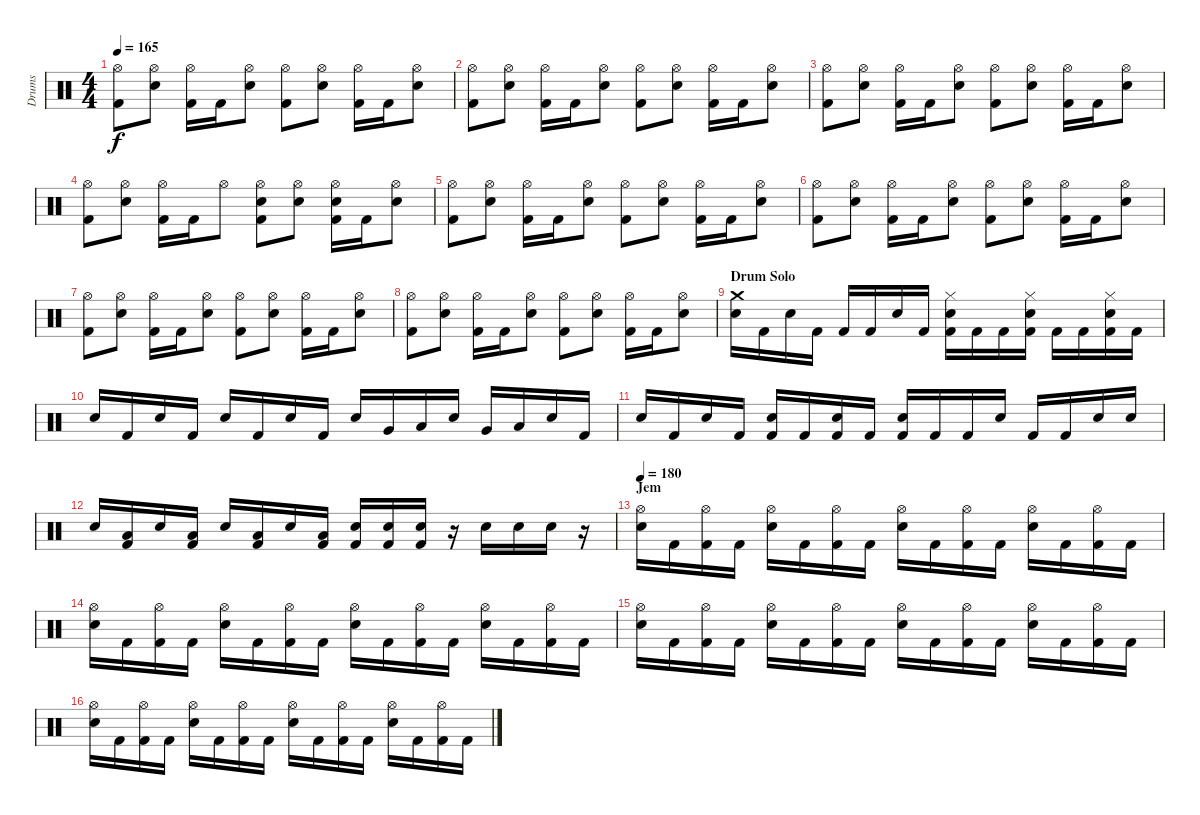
\track ("Drums" "Drums") {instrument percussion}
\staff {score}
\articulation defaults
\ts (4 4)
\section ("" "")
\tempo 165
\clef neutral
\ks c
("Hi-Hat (open)" "Kick (hit) 2").8{dy f} ("Hi-Hat (open)" "Snare (hit) 2").8 ("Hi-Hat (open)" "Kick (hit) 2").16 "Kick (hit) 2".16 ("Hi-Hat (open)" "Snare (hit) 2").8 ("Hi-Hat (open)" "Kick (hit) 2").8 ("Hi-Hat (open)" "Snare (hit) 2").8 ("Hi-Hat (open)" "Kick (hit) 2").16 "Kick (hit) 2".16 ("Hi-Hat (open)" "Snare (hit) 2").8 |
("Hi-Hat (open)" "Kick (hit) 2").8 ("Hi-Hat (open)" "Snare (hit) 2").8 ("Hi-Hat (open)" "Kick (hit) 2").16 "Kick (hit) 2".16 ("Hi-Hat (open)" "Snare (hit) 2").8 ("Hi-Hat (open)" "Kick (hit) 2").8 ("Hi-Hat (open)" "Snare (hit) 2").8 ("Hi-Hat (open)" "Kick (hit) 2").16 "Kick (hit) 2".16 ("Hi-Hat (open)" "Snare (hit) 2").8 |
("Hi-Hat (open)" "Kick (hit) 2").8 ("Hi-Hat (open)" "Snare (hit) 2").8 ("Hi-Hat (open)" "Kick (hit) 2").16 "Kick (hit) 2".16 ("Hi-Hat (open)" "Snare (hit) 2").8 ("Hi-Hat (open)" "Kick (hit) 2").8 ("Hi-Hat (open)" "Snare (hit) 2").8 ("Hi-Hat (open)" "Kick (hit) 2").16 "Kick (hit) 2".16 ("Hi-Hat (open)" "Snare (hit) 2").8 |
("Hi-Hat (open)" "Kick (hit) 2").8 ("Hi-Hat (open)" "Snare (hit) 2").8 ("Hi-Hat (open)" "Kick (hit) 2").16 "Kick (hit) 2".16 "Hi-Hat (open)".8 ("Hi-Hat (open)" "Snare (hit) 2" "Kick (hit) 2").8 ("Hi-Hat (open)" "Snare (hit) 2").8 ("Hi-Hat (open)" "Snare (hit) 2" "Kick (hit) 2").16 "Kick (hit) 2".16 ("Hi-Hat (open)" "Snare (hit) 2").8 |
("Hi-Hat (open)" "Kick (hit) 2").8 ("Hi-Hat (open)" "Snare (hit) 2").8 ("Hi-Hat (open)" "Kick (hit) 2").16 "Kick (hit) 2".16 ("Hi-Hat (open)" "Snare (hit) 2").8 ("Hi-Hat (open)" "Kick (hit) 2").8 ("Hi-Hat (open)" "Snare (hit) 2").8 ("Hi-Hat (open)" "Kick (hit) 2").16 "Kick (hit) 2".16 ("Hi-Hat (open)" "Snare (hit) 2").8 |
("Hi-Hat (open)" "Kick (hit) 2").8 ("Hi-Hat (open)" "Snare (hit) 2").8 ("Hi-Hat (open)" "Kick (hit) 2").16 "Kick (hit) 2".16 ("Hi-Hat (open)" "Snare (hit) 2").8 ("Hi-Hat (open)" "Kick (hit) 2").8 ("Hi-Hat (open)" "Snare (hit) 2").8 ("Hi-Hat (open)" "Kick (hit) 2").16 "Kick (hit) 2".16 ("Hi-Hat (open)" "Snare (hit) 2").8 |
("Hi-Hat (open)" "Kick (hit) 2").8 ("Hi-Hat (open)" "Snare (hit) 2").8 ("Hi-Hat (open)" "Kick (hit) 2").16 "Kick (hit) 2".16 ("Hi-Hat (open)" "Snare (hit) 2").8 ("Hi-Hat (open)" "Kick (hit) 2").8 ("Hi-Hat (open)" "Snare (hit) 2").8 ("Hi-Hat (open)" "Kick (hit) 2").16 "Kick (hit) 2".16 ("Hi-Hat (open)" "Snare (hit) 2").8 |
("Hi-Hat (open)" "Kick (hit) 2").8 ("Hi-Hat (open)" "Snare (hit) 2").8 ("Hi-Hat (open)" "Kick (hit) 2").16 "Kick (hit) 2".16 ("Hi-Hat (open)" "Snare (hit) 2").8 ("Hi-Hat (open)" "Kick (hit) 2").8 ("Hi-Hat (open)" "Snare (hit) 2").8 ("Hi-Hat (open)" "Kick (hit) 2").16 "Kick (hit) 2".16 ("Hi-Hat (open)" "Snare (hit) 2").8 |
\section ("" "Drum Solo")
("Crash medium (hit)" "Snare (hit) 2").16 "Kick (hit) 2".16 "Snare (hit) 2".16 "Kick (hit) 2".16 "Kick (hit) 2".16 "Kick (hit) 2".16 "Snare (hit) 2".16 "Kick (hit) 2".16 ("Hi-Hat (closed)" "Snare (hit) 2" "Kick (hit) 2").16 "Kick (hit) 2".16 "Kick (hit) 2".16 ("Hi-Hat (closed)" "Snare (hit) 2" "Kick (hit) 2").16 "Kick (hit) 2".16 "Kick (hit) 2".16 ("Hi-Hat (closed)" "Snare (hit) 2" "Kick (hit) 2").16 "Kick (hit) 2".16 |
"Snare (hit) 2".16 "Kick (hit) 2".16 "Snare (hit) 2".16 "Kick (hit) 2".16 "Snare (hit) 2".16 "Kick (hit) 2".16 "Snare (hit) 2".16 "Kick (hit) 2".16 "Snare (hit) 2".16 "Very Low Tom (hit)".16 "Low Floor Tom (hit)".16 "Snare (hit) 2".16 "Very Low Tom (hit)".16 "Low Floor Tom (hit)".16 "Snare (hit) 2".16 "Kick (hit) 2".16 |
"Snare (hit) 2".16 "Kick (hit) 2".16 "Snare (hit) 2".16 "Kick (hit) 2".16 ("Snare (hit) 2" "Kick (hit) 2").16 "Kick (hit) 2".16 ("Snare (hit) 2" "Kick (hit) 2").16 "Kick (hit) 2".16 ("Snare (hit) 2" "Kick (hit) 2").16 "Kick (hit) 2".16 "Kick (hit) 2".16 "Snare (hit) 2".16 "Kick (hit) 2".16 "Kick (hit) 2".16 "Snare (hit) 2".16 "Snare (hit) 2".16 |
"Snare (hit) 2".16 ("Low Floor Tom (hit)" "Kick (hit) 2").16 "Snare (hit) 2".16 ("Low Floor Tom (hit)" "Kick (hit) 2").16 "Snare (hit) 2".16 ("Low Floor Tom (hit)" "Kick (hit) 2").16 "Snare (hit) 2".16 ("Low Floor Tom (hit)" "Kick (hit) 2").16 ("Snare (hit) 2" "Kick (hit) 2").16 ("Snare (hit) 2" "Kick (hit) 2").16 ("Snare (hit) 2" "Kick (hit) 2").16 r.16 "Snare (hit) 2".16 "Snare (hit) 2".16 "Snare (hit) 2".16 r.16 |
\section ("" "Jem")
\tempo 180
("Hi-Hat (open)" "Snare (hit) 2").16 "Kick (hit) 2".16 ("Hi-Hat (open)" "Kick (hit) 2").16 "Kick (hit) 2".16 ("Hi-Hat (open)" "Snare (hit) 2").16 "Kick (hit) 2".16 ("Hi-Hat (open)" "Kick (hit) 2").16 "Kick (hit) 2".16 ("Hi-Hat (open)" "Snare (hit) 2").16 "Kick (hit) 2".16 ("Hi-Hat (open)" "Kick (hit) 2").16 "Kick (hit) 2".16 ("Hi-Hat (open)" "Snare (hit) 2").16 "Kick (hit) 2".16 ("Hi-Hat (open)" "Kick (hit) 2").16 "Kick (hit) 2".16 |
("Hi-Hat (open)" "Snare (hit) 2").16 "Kick (hit) 2".16 ("Hi-Hat (open)" "Kick (hit) 2").16 "Kick (hit) 2".16 ("Hi-Hat (open)" "Snare (hit) 2").16 "Kick (hit) 2".16 ("Hi-Hat (open)" "Kick (hit) 2").16 "Kick (hit) 2".16 ("Hi-Hat (open)" "Snare (hit) 2").16 "Kick (hit) 2".16 ("Hi-Hat (open)" "Kick (hit) 2").16 "Kick (hit) 2".16 ("Hi-Hat (open)" "Snare (hit) 2").16 "Kick (hit) 2".16 ("Hi-Hat (open)" "Kick (hit) 2").16 "Kick (hit) 2".16 |
("Hi-Hat (open)" "Snare (hit) 2").16 "Kick (hit) 2".16 ("Hi-Hat (open)" "Kick (hit) 2").16 "Kick (hit) 2".16 ("Hi-Hat (open)" "Snare (hit) 2").16 "Kick (hit) 2".16 ("Hi-Hat (open)" "Kick (hit) 2").16 "Kick (hit) 2".16 ("Hi-Hat (open)" "Snare (hit) 2").16 "Kick (hit) 2".16 ("Hi-Hat (open)" "Kick (hit) 2").16 "Kick (hit) 2".16 ("Hi-Hat (open)" "Snare (hit) 2").16 "Kick (hit) 2".16 ("Hi-Hat (open)" "Kick (hit) 2").16 "Kick (hit) 2".16 |
("Hi-Hat (open)" "Snare (hit) 2").16 "Kick (hit) 2".16 ("Hi-Hat (open)" "Kick (hit) 2").16 "Kick (hit) 2".16 ("Hi-Hat (open)" "Snare (hit) 2").16 "Kick (hit) 2".16 ("Hi-Hat (open)" "Kick (hit) 2").16 "Kick (hit) 2".16 ("Hi-Hat (open)" "Snare (hit) 2").16 "Kick (hit) 2".16 ("Hi-Hat (open)" "Kick (hit) 2").16 "Kick (hit) 2".16 ("Hi-Hat (open)" "Snare (hit) 2").16 "Kick (hit) 2".16 ("Hi-Hat (open)" "Kick (hit) 2").16 "Kick (hit) 2".16
